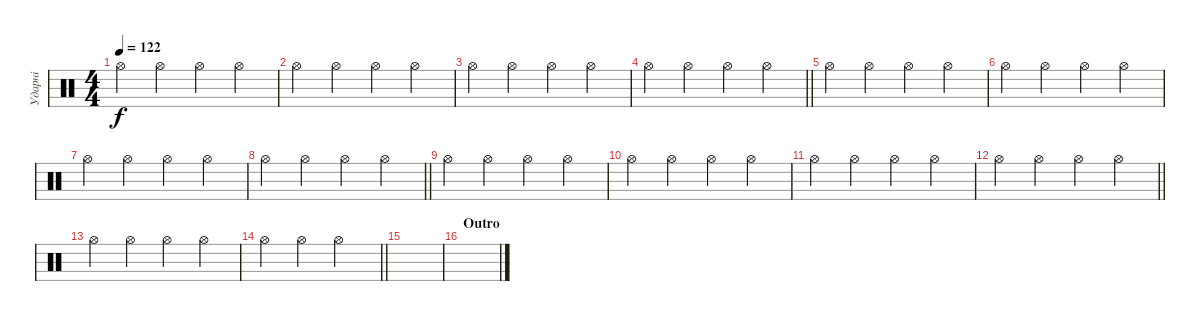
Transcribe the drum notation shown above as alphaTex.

\track ("Ударні" "Ударні") {instrument percussion}
\staff {score}
\articulation defaults
\ts (4 4)
\tempo 122
\clef neutral
\ks c "Hi-Hat (open)".4{dy f} "Hi-Hat (open)".4 "Hi-Hat (open)".4 "Hi-Hat (open)".4
|
"Hi-Hat (open)".4 "Hi-Hat (open)".4 "Hi-Hat (open)".4 "Hi-Hat (open)".4 |
"Hi-Hat (open)".4 "Hi-Hat (open)".4 "Hi-Hat (open)".4 "Hi-Hat (open)".4 |
\barLineRight lightlight "Hi-Hat (open)".4 "Hi-Hat (open)".4 "Hi-Hat (open)".4 "Hi-Hat (open)".4
|
"Hi-Hat (open)".4 "Hi-Hat (open)".4 "Hi-Hat (open)".4 "Hi-Hat (open)".4 |
"Hi-Hat (open)".4 "Hi-Hat (open)".4 "Hi-Hat (open)".4 "Hi-Hat (open)".4 |
"Hi-Hat (open)".4 "Hi-Hat (open)".4 "Hi-Hat (open)".4 "Hi-Hat (open)".4 |
\barLineRight lightlight "Hi-Hat (open)".4 "Hi-Hat (open)".4 "Hi-Hat (open)".4 "Hi-Hat (open)".4
|
"Hi-Hat (open)".4 "Hi-Hat (open)".4 "Hi-Hat (open)".4 "Hi-Hat (open)".4 |
"Hi-Hat (open)".4 "Hi-Hat (open)".4 "Hi-Hat (open)".4 "Hi-Hat (open)".4 |
"Hi-Hat (open)".4 "Hi-Hat (open)".4 "Hi-Hat (open)".4 "Hi-Hat (open)".4 |
\barLineRight lightlight "Hi-Hat (open)".4 "Hi-Hat (open)".4 "Hi-Hat (open)".4 "Hi-Hat (open)".4
|
"Hi-Hat (open)".4 "Hi-Hat (open)".4 "Hi-Hat (open)".4 "Hi-Hat (open)".4 |
\barLineRight lightlight "Hi-Hat (open)".4 "Hi-Hat (open)".4 "Hi-Hat (open)".2
|
|
\section ("" "Outro")
